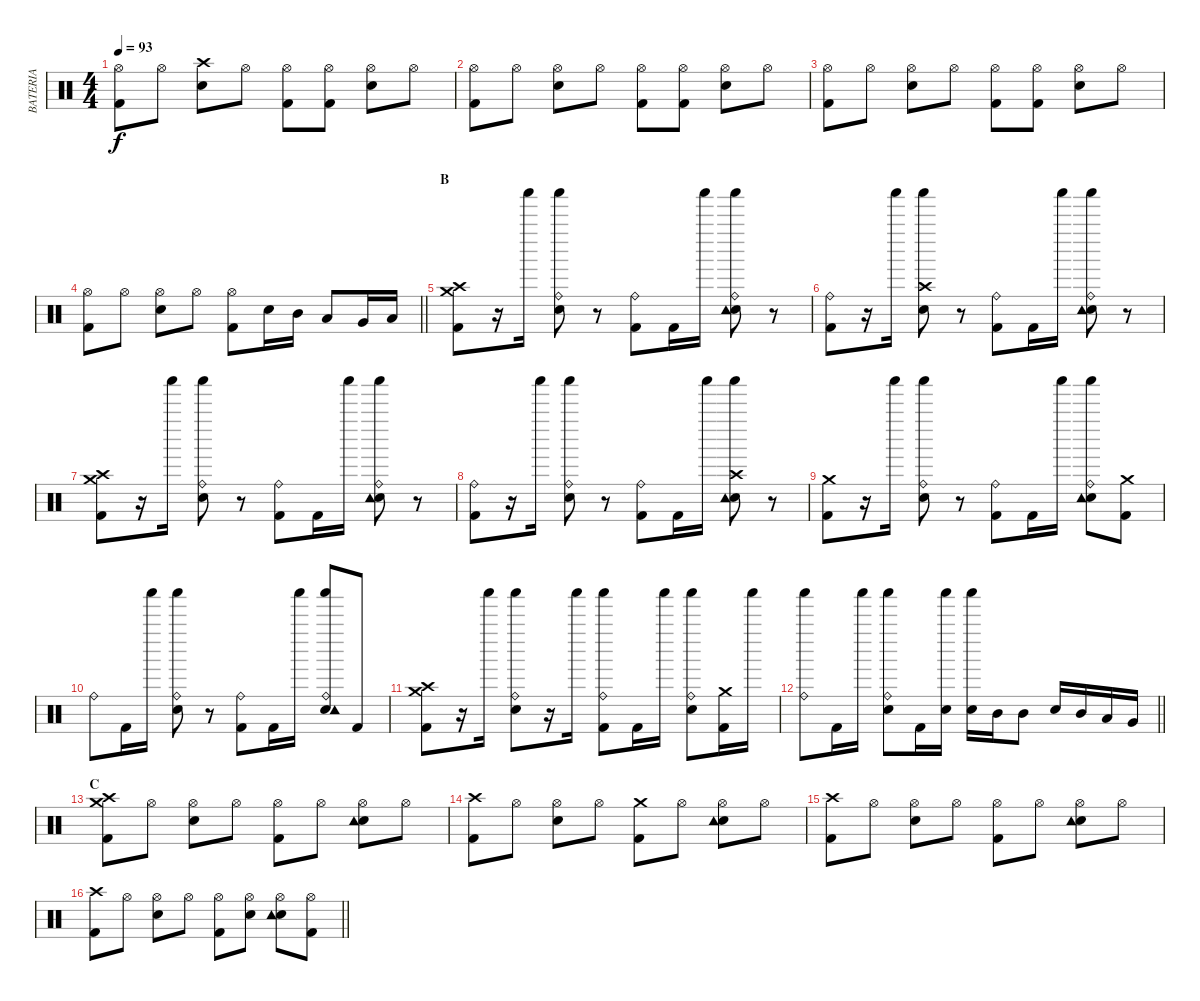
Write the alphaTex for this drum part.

\track ("BATERIA" "BATERIA") {instrument percussion}
\staff {score}
\articulation defaults
\ts (4 4)
\tempo 93
\clef neutral
\ks c
("Kick (hit) 2" "Hi-Hat (open)").8{dy f} "Hi-Hat (open)".8 ("Electric Snare (hit)" "Crash high (hit)").8 "Hi-Hat (open)".8 ("Kick (hit) 2" "Hi-Hat (open)").8 ("Kick (hit) 2" "Hi-Hat (open)").8 ("Electric Snare (hit)" "Hi-Hat (open)").8 "Hi-Hat (open)".8 |
("Kick (hit) 2" "Hi-Hat (open)").8 "Hi-Hat (open)".8 ("Electric Snare (hit)" "Hi-Hat (open)").8 "Hi-Hat (open)".8 ("Kick (hit) 2" "Hi-Hat (open)").8 ("Kick (hit) 2" "Hi-Hat (open)").8 ("Electric Snare (hit)" "Hi-Hat (open)").8 "Hi-Hat (open)".8 |
("Kick (hit) 2" "Hi-Hat (open)").8 "Hi-Hat (open)".8 ("Electric Snare (hit)" "Hi-Hat (open)").8 "Hi-Hat (open)".8 ("Kick (hit) 2" "Hi-Hat (open)").8 ("Kick (hit) 2" "Hi-Hat (open)").8 ("Electric Snare (hit)" "Hi-Hat (open)").8 "Hi-Hat (open)".8 |
\barLineRight lightlight
("Kick (hit) 2" "Hi-Hat (open)").8 "Hi-Hat (open)".8 ("Electric Snare (hit)" "Hi-Hat (open)").8 "Hi-Hat (open)".8 ("Kick (hit) 2" "Hi-Hat (open)").8 "Electric Snare (hit)".16 "Mid Tom (hit)".16 "Low Tom (hit)".8 "Very Low Tom (hit)".16 "Low Floor Tom (hit)".16 |
\section ("" "B")
("Kick (hit) 2" "Crash high (hit)" "Crash medium (hit)").8 r.16 "Shaker (hit)".16 ("Electric Snare (hit)" "Ride (bell)" "Shaker (hit)").8 r.8 ("Kick (hit) 2" "Ride (bell)").8 "Kick (hit) 2".16 "Shaker (hit)".16 ("Electric Snare (hit)" "Ride (bell)" "Shaker (hit)" "Tambourine (hit)").8 r.8 |
("Kick (hit) 2" "Ride (bell)").8 r.16 "Shaker (hit)".16 ("Electric Snare (hit)" "Shaker (hit)" "Crash high (hit)").8 r.8 ("Kick (hit) 2" "Ride (bell)").8 "Kick (hit) 2".16 "Shaker (hit)".16 ("Electric Snare (hit)" "Ride (bell)" "Shaker (hit)" "Tambourine (hit)").8 r.8 |
("Kick (hit) 2" "Crash high (hit)" "Crash medium (hit)").8 r.16 "Shaker (hit)".16 ("Electric Snare (hit)" "Ride (bell)" "Shaker (hit)").8 r.8 ("Kick (hit) 2" "Ride (bell)").8 "Kick (hit) 2".16 "Shaker (hit)".16 ("Electric Snare (hit)" "Ride (bell)" "Shaker (hit)" "Tambourine (hit)").8 r.8 |
("Kick (hit) 2" "Ride (bell)").8 r.16 "Shaker (hit)".16 ("Electric Snare (hit)" "Ride (bell)" "Shaker (hit)").8 r.8 ("Kick (hit) 2" "Ride (bell)").8 "Kick (hit) 2".16 "Shaker (hit)".16 ("Electric Snare (hit)" "Tambourine (hit)" "Shaker (hit)" "Crash high (hit)").8 r.8 |
("Kick (hit) 2" "Crash medium (hit)").8 r.16 "Shaker (hit)".16 ("Electric Snare (hit)" "Ride (bell)" "Shaker (hit)").8 r.8 ("Kick (hit) 2" "Ride (bell)").8 "Kick (hit) 2".16 "Shaker (hit)".16 ("Electric Snare (hit)" "Ride (bell)" "Shaker (hit)" "Tambourine (hit)").8 ("Kick (hit) 2" "Crash medium (hit)").8 |
"Ride (bell)".8 "Kick (hit) 2".16 "Shaker (hit)".16 ("Electric Snare (hit)" "Ride (bell)" "Shaker (hit)").8 r.8 ("Kick (hit) 2" "Ride (bell)").8 "Kick (hit) 2".16 "Shaker (hit)".16 ("Electric Snare (hit)" "Ride (bell)" "Shaker (hit)" "Tambourine (hit)").8 "Kick (hit) 2".8 |
("Kick (hit) 2" "Crash high (hit)" "Crash medium (hit)").8 r.16 "Shaker (hit)".16 ("Electric Snare (hit)" "Ride (bell)" "Shaker (hit)").8 r.16 "Shaker (hit)".16 ("Kick (hit) 2" "Ride (bell)" "Shaker (hit)").8 "Kick (hit) 2".16 "Shaker (hit)".16 ("Electric Snare (hit)" "Ride (bell)" "Shaker (hit)").8 ("Kick (hit) 2" "Crash medium (hit)").16 "Shaker (hit)".16 |
\barLineRight lightlight
("Ride (bell)" "Shaker (hit)").8 "Kick (hit) 2".16 "Shaker (hit)".16 ("Electric Snare (hit)" "Ride (bell)" "Shaker (hit)").8 "Kick (hit) 2".16 ("Electric Snare (hit)" "Shaker (hit)").16 ("Electric Snare (hit)" "Shaker (hit)").16 "Mid Tom (hit)".16 "Mid Tom (hit)".8 "Electric Snare (hit)".16 "Mid Tom (hit)".16 "Low Tom (hit)".16 "Very Low Tom (hit)".16 |
\section ("" "C")
("Kick (hit) 2" "Crash high (hit)" "Crash medium (hit)").8 "Hi-Hat (open)".8 ("Electric Snare (hit)" "Hi-Hat (open)").8 "Hi-Hat (open)".8 ("Kick (hit) 2" "Hi-Hat (open)").8 "Hi-Hat (open)".8 ("Electric Snare (hit)" "Hi-Hat (open)" "Tambourine (hit)").8 "Hi-Hat (open)".8 |
("Kick (hit) 2" "Crash high (hit)").8 "Hi-Hat (open)".8 ("Electric Snare (hit)" "Hi-Hat (open)").8 "Hi-Hat (open)".8 ("Kick (hit) 2" "Crash medium (hit)").8 "Hi-Hat (open)".8 ("Electric Snare (hit)" "Hi-Hat (open)" "Tambourine (hit)").8 "Hi-Hat (open)".8 |
("Kick (hit) 2" "Crash high (hit)").8 "Hi-Hat (open)".8 ("Electric Snare (hit)" "Hi-Hat (open)").8 "Hi-Hat (open)".8 ("Kick (hit) 2" "Hi-Hat (open)").8 "Hi-Hat (open)".8 ("Electric Snare (hit)" "Hi-Hat (open)" "Tambourine (hit)").8 "Hi-Hat (open)".8 |
\barLineRight lightlight
("Kick (hit) 2" "Crash high (hit)").8 "Hi-Hat (open)".8 ("Electric Snare (hit)" "Hi-Hat (open)").8 "Hi-Hat (open)".8 ("Kick (hit) 2" "Hi-Hat (open)").8 ("Electric Snare (hit)" "Hi-Hat (open)").8 ("Electric Snare (hit)" "Hi-Hat (open)" "Tambourine (hit)").8 ("Kick (hit) 2" "Hi-Hat (open)").8
